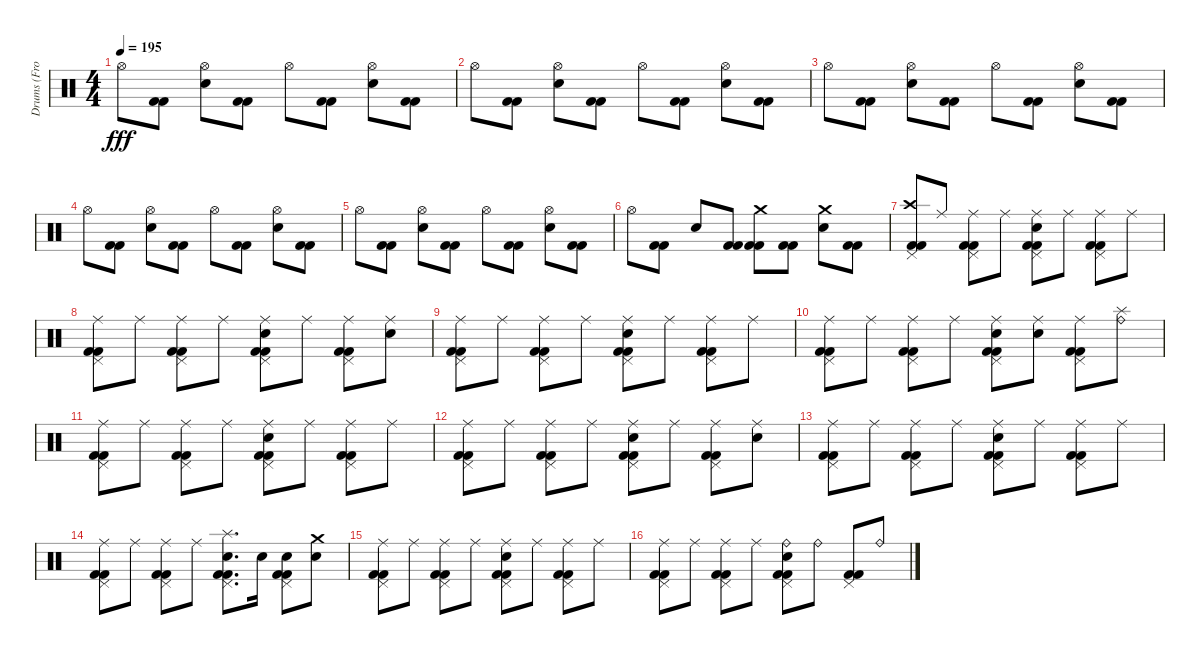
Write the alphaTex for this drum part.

\track ("Drums (From Other GP)" "Drums (Fro") {instrument percussion}
\staff {score}
\articulation defaults
\ts (4 4)
\tempo 195
\clef neutral
\ks c "Hi-Hat (open)".8{dy fff}
("Kick (hit) 2" "Kick (hit) 2").8 ("Hi-Hat (open)" "Electric Snare (hit)").8 ("Kick (hit) 2" "Kick (hit) 2").8 "Hi-Hat (open)".8 ("Kick (hit) 2" "Kick (hit) 2").8 ("Hi-Hat (open)" "Electric Snare (hit)").8 ("Kick (hit) 2" "Kick (hit) 2").8 |
"Hi-Hat (open)".8 ("Kick (hit) 2" "Kick (hit) 2").8 ("Hi-Hat (open)" "Electric Snare (hit)").8 ("Kick (hit) 2" "Kick (hit) 2").8 "Hi-Hat (open)".8 ("Kick (hit) 2" "Kick (hit) 2").8 ("Hi-Hat (open)" "Electric Snare (hit)").8 ("Kick (hit) 2" "Kick (hit) 2").8 |
"Hi-Hat (open)".8 ("Kick (hit) 2" "Kick (hit) 2").8 ("Hi-Hat (open)" "Electric Snare (hit)").8 ("Kick (hit) 2" "Kick (hit) 2").8 "Hi-Hat (open)".8 ("Kick (hit) 2" "Kick (hit) 2").8 ("Hi-Hat (open)" "Electric Snare (hit)").8 ("Kick (hit) 2" "Kick (hit) 2").8 |
"Hi-Hat (open)".8 ("Kick (hit) 2" "Kick (hit) 2").8 ("Hi-Hat (open)" "Electric Snare (hit)").8 ("Kick (hit) 2" "Kick (hit) 2").8 "Hi-Hat (open)".8 ("Kick (hit) 2" "Kick (hit) 2").8 ("Hi-Hat (open)" "Electric Snare (hit)").8 ("Kick (hit) 2" "Kick (hit) 2").8 |
"Hi-Hat (open)".8 ("Kick (hit) 2" "Kick (hit) 2").8 ("Hi-Hat (open)" "Electric Snare (hit)").8 ("Kick (hit) 2" "Kick (hit) 2").8 "Hi-Hat (open)".8 ("Kick (hit) 2" "Kick (hit) 2").8 ("Hi-Hat (open)" "Electric Snare (hit)").8 ("Kick (hit) 2" "Kick (hit) 2").8 |
"Hi-Hat (open)".8 ("Kick (hit) 2" "Kick (hit) 2").8 "Electric Snare (hit)".8 ("Kick (hit) 2" "Kick (hit) 2").8 ("Crash medium (hit)" "Kick (hit) 2" "Kick (hit) 2").8 ("Kick (hit) 2" "Kick (hit) 2").8 ("Crash medium (hit)" "Electric Snare (hit)").8 ("Kick (hit) 2" "Kick (hit) 2").8 |
("Crash high (hit)" "Pedal Hi-Hat (hit)" "Kick (hit) 2" "Kick (hit) 2").8 "Ride (middle)".8 ("Ride (middle)" "Pedal Hi-Hat (hit)" "Kick (hit) 2" "Kick (hit) 2").8 "Ride (middle)".8 ("Ride (middle)" "Electric Snare (hit)" "Pedal Hi-Hat (hit)" "Kick (hit) 2" "Kick (hit) 2").8 "Ride (middle)".8 ("Ride (middle)" "Pedal Hi-Hat (hit)" "Kick (hit) 2" "Kick (hit) 2").8 "Ride (middle)".8 |
("Ride (middle)" "Pedal Hi-Hat (hit)" "Kick (hit) 2" "Kick (hit) 2").8 "Ride (middle)".8 ("Ride (middle)" "Pedal Hi-Hat (hit)" "Kick (hit) 2" "Kick (hit) 2").8 "Ride (middle)".8 ("Ride (middle)" "Electric Snare (hit)" "Pedal Hi-Hat (hit)" "Kick (hit) 2" "Kick (hit) 2").8 "Ride (middle)".8 ("Ride (middle)" "Pedal Hi-Hat (hit)" "Kick (hit) 2" "Kick (hit) 2").8 ("Ride (middle)" "Electric Snare (hit)").8 |
("Ride (middle)" "Pedal Hi-Hat (hit)" "Kick (hit) 2" "Kick (hit) 2").8 "Ride (middle)".8 ("Ride (middle)" "Pedal Hi-Hat (hit)" "Kick (hit) 2" "Kick (hit) 2").8 "Ride (middle)".8 ("Ride (middle)" "Electric Snare (hit)" "Pedal Hi-Hat (hit)" "Kick (hit) 2" "Kick (hit) 2").8 "Ride (middle)".8 ("Ride (middle)" "Pedal Hi-Hat (hit)" "Kick (hit) 2" "Kick (hit) 2").8 "Ride (middle)".8 |
("Ride (middle)" "Pedal Hi-Hat (hit)" "Kick (hit) 2" "Kick (hit) 2").8 "Ride (middle)".8 ("Ride (middle)" "Pedal Hi-Hat (hit)" "Kick (hit) 2" "Kick (hit) 2").8 "Ride (middle)".8 ("Ride (middle)" "Electric Snare (hit)" "Pedal Hi-Hat (hit)" "Kick (hit) 2" "Kick (hit) 2").8 ("Ride (middle)" "Electric Snare (hit)").8 ("Ride (middle)" "Pedal Hi-Hat (hit)" "Kick (hit) 2" "Kick (hit) 2").8 ("Ride (bell)" "Splash (hit)").8 |
("Ride (middle)" "Pedal Hi-Hat (hit)" "Kick (hit) 2" "Kick (hit) 2").8 "Ride (middle)".8 ("Ride (middle)" "Pedal Hi-Hat (hit)" "Kick (hit) 2" "Kick (hit) 2").8 "Ride (middle)".8 ("Ride (middle)" "Electric Snare (hit)" "Pedal Hi-Hat (hit)" "Kick (hit) 2" "Kick (hit) 2").8 "Ride (middle)".8 ("Ride (middle)" "Pedal Hi-Hat (hit)" "Kick (hit) 2" "Kick (hit) 2").8 "Ride (middle)".8 |
("Ride (middle)" "Pedal Hi-Hat (hit)" "Kick (hit) 2" "Kick (hit) 2").8 "Ride (middle)".8 ("Ride (middle)" "Pedal Hi-Hat (hit)" "Kick (hit) 2" "Kick (hit) 2").8 "Ride (middle)".8 ("Ride (middle)" "Electric Snare (hit)" "Pedal Hi-Hat (hit)" "Kick (hit) 2" "Kick (hit) 2").8 "Ride (middle)".8 ("Ride (middle)" "Pedal Hi-Hat (hit)" "Kick (hit) 2" "Kick (hit) 2").8 ("Ride (middle)" "Electric Snare (hit)").8 |
("Ride (middle)" "Pedal Hi-Hat (hit)" "Kick (hit) 2" "Kick (hit) 2").8 "Ride (middle)".8 ("Ride (middle)" "Pedal Hi-Hat (hit)" "Kick (hit) 2" "Kick (hit) 2").8 "Ride (middle)".8 ("Ride (middle)" "Electric Snare (hit)" "Pedal Hi-Hat (hit)" "Kick (hit) 2" "Kick (hit) 2").8 "Ride (middle)".8 ("Ride (middle)" "Pedal Hi-Hat (hit)" "Kick (hit) 2" "Kick (hit) 2").8 "Ride (middle)".8 |
("Ride (middle)" "Pedal Hi-Hat (hit)" "Kick (hit) 2" "Kick (hit) 2").8 "Ride (middle)".8 ("Ride (middle)" "Pedal Hi-Hat (hit)" "Kick (hit) 2" "Kick (hit) 2").8 "Ride (middle)".8 ("Splash (hit)" "Electric Snare (hit)" "Pedal Hi-Hat (hit)" "Kick (hit) 2" "Kick (hit) 2").8{d} "Electric Snare (hit)".16 ("Electric Snare (hit)" "Pedal Hi-Hat (hit)" "Kick (hit) 2" "Kick (hit) 2").8 ("Crash medium (hit)" "Electric Snare (hit)").8 |
("Ride (middle)" "Pedal Hi-Hat (hit)" "Kick (hit) 2" "Kick (hit) 2").8 "Ride (middle)".8 ("Ride (middle)" "Pedal Hi-Hat (hit)" "Kick (hit) 2" "Kick (hit) 2").8 "Ride (middle)".8 ("Ride (middle)" "Electric Snare (hit)" "Pedal Hi-Hat (hit)" "Kick (hit) 2" "Kick (hit) 2").8 "Ride (middle)".8 ("Ride (middle)" "Pedal Hi-Hat (hit)" "Kick (hit) 2" "Kick (hit) 2").8 "Ride (middle)".8 |
("Ride (middle)" "Pedal Hi-Hat (hit)" "Kick (hit) 2" "Kick (hit) 2").8 "Ride (middle)".8 ("Ride (middle)" "Pedal Hi-Hat (hit)" "Kick (hit) 2" "Kick (hit) 2").8 "Ride (middle)".8 ("Ride (bell)" "Electric Snare (hit)" "Pedal Hi-Hat (hit)" "Kick (hit) 2" "Kick (hit) 2").8 "Ride (bell)".8 ("Pedal Hi-Hat (hit)" "Kick (hit) 2" "Kick (hit) 2").8 "Ride (bell)".8
